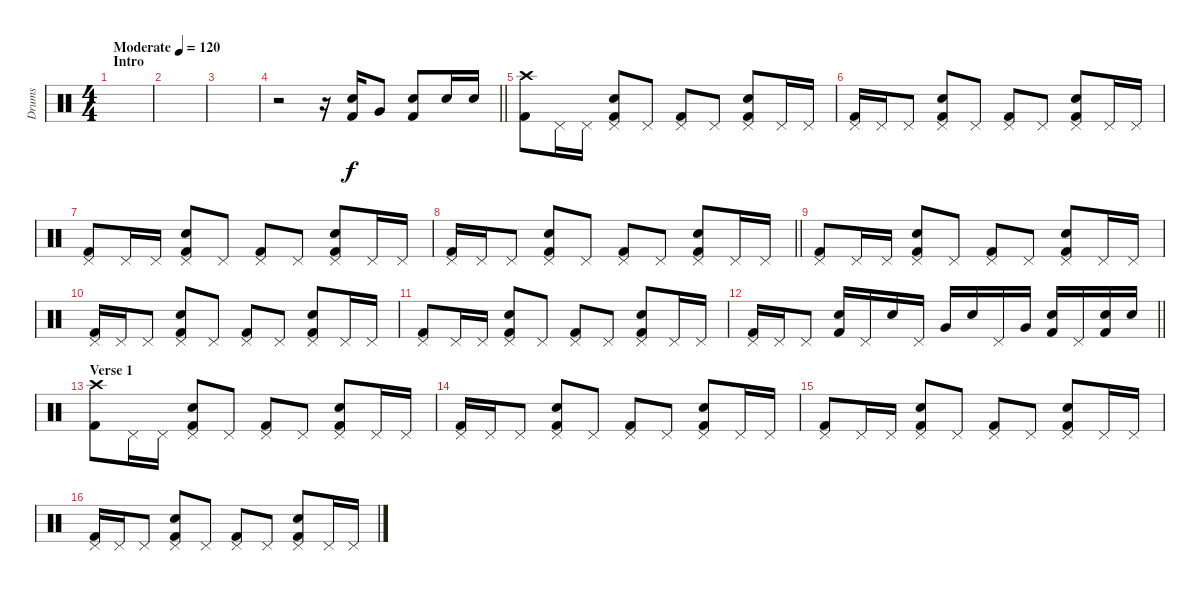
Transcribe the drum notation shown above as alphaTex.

\track ("Drums" "Drums") {instrument percussion}
\staff {score}
\articulation defaults
\ts (4 4)
\section ("" "Intro")
\tempo (120 "Moderate")
\clef neutral
\ks c
|
|
|
\barLineRight lightlight
r.2 r.16 ("Kick (hit) 2" "Snare (hit) 2").16 "Very Low Tom (hit)".8 ("Kick (hit) 2" "Snare (hit) 2").8 "Snare (hit) 2".16 "Snare (hit) 2".16 |
("Kick (hit) 2" "Crash high (hit)").8 "Pedal Hi-Hat (hit)".16 "Pedal Hi-Hat (hit)".16 ("Kick (hit) 2" "Snare (hit) 2" "Pedal Hi-Hat (hit)").8 "Pedal Hi-Hat (hit)".8 ("Kick (hit) 2" "Pedal Hi-Hat (hit)").8 "Pedal Hi-Hat (hit)".8 ("Kick (hit) 2" "Snare (hit) 2" "Pedal Hi-Hat (hit)").8 "Pedal Hi-Hat (hit)".16 "Pedal Hi-Hat (hit)".16 |
("Kick (hit) 2" "Pedal Hi-Hat (hit)").16 "Pedal Hi-Hat (hit)".16 "Pedal Hi-Hat (hit)".8 ("Kick (hit) 2" "Snare (hit) 2" "Pedal Hi-Hat (hit)").8 "Pedal Hi-Hat (hit)".8 ("Kick (hit) 2" "Pedal Hi-Hat (hit)").8 "Pedal Hi-Hat (hit)".8 ("Kick (hit) 2" "Snare (hit) 2" "Pedal Hi-Hat (hit)").8 "Pedal Hi-Hat (hit)".16 "Pedal Hi-Hat (hit)".16 |
("Kick (hit) 2" "Pedal Hi-Hat (hit)").8 "Pedal Hi-Hat (hit)".16 "Pedal Hi-Hat (hit)".16 ("Kick (hit) 2" "Snare (hit) 2" "Pedal Hi-Hat (hit)").8 "Pedal Hi-Hat (hit)".8 ("Kick (hit) 2" "Pedal Hi-Hat (hit)").8 "Pedal Hi-Hat (hit)".8 ("Kick (hit) 2" "Snare (hit) 2" "Pedal Hi-Hat (hit)").8 "Pedal Hi-Hat (hit)".16 "Pedal Hi-Hat (hit)".16 |
\barLineRight lightlight
("Kick (hit) 2" "Pedal Hi-Hat (hit)").16 "Pedal Hi-Hat (hit)".16 "Pedal Hi-Hat (hit)".8 ("Kick (hit) 2" "Snare (hit) 2" "Pedal Hi-Hat (hit)").8 "Pedal Hi-Hat (hit)".8 ("Kick (hit) 2" "Pedal Hi-Hat (hit)").8 "Pedal Hi-Hat (hit)".8 ("Kick (hit) 2" "Snare (hit) 2" "Pedal Hi-Hat (hit)").8 "Pedal Hi-Hat (hit)".16 "Pedal Hi-Hat (hit)".16 |
("Kick (hit) 2" "Pedal Hi-Hat (hit)").8 "Pedal Hi-Hat (hit)".16 "Pedal Hi-Hat (hit)".16 ("Kick (hit) 2" "Snare (hit) 2" "Pedal Hi-Hat (hit)").8 "Pedal Hi-Hat (hit)".8 ("Kick (hit) 2" "Pedal Hi-Hat (hit)").8 "Pedal Hi-Hat (hit)".8 ("Kick (hit) 2" "Snare (hit) 2" "Pedal Hi-Hat (hit)").8 "Pedal Hi-Hat (hit)".16 "Pedal Hi-Hat (hit)".16 |
("Kick (hit) 2" "Pedal Hi-Hat (hit)").16 "Pedal Hi-Hat (hit)".16 "Pedal Hi-Hat (hit)".8 ("Kick (hit) 2" "Snare (hit) 2" "Pedal Hi-Hat (hit)").8 "Pedal Hi-Hat (hit)".8 ("Kick (hit) 2" "Pedal Hi-Hat (hit)").8 "Pedal Hi-Hat (hit)".8 ("Kick (hit) 2" "Snare (hit) 2" "Pedal Hi-Hat (hit)").8 "Pedal Hi-Hat (hit)".16 "Pedal Hi-Hat (hit)".16 |
("Kick (hit) 2" "Pedal Hi-Hat (hit)").8 "Pedal Hi-Hat (hit)".16 "Pedal Hi-Hat (hit)".16 ("Kick (hit) 2" "Snare (hit) 2" "Pedal Hi-Hat (hit)").8 "Pedal Hi-Hat (hit)".8 ("Kick (hit) 2" "Pedal Hi-Hat (hit)").8 "Pedal Hi-Hat (hit)".8 ("Kick (hit) 2" "Snare (hit) 2" "Pedal Hi-Hat (hit)").8 "Pedal Hi-Hat (hit)".16 "Pedal Hi-Hat (hit)".16 |
\barLineRight lightlight
("Kick (hit) 2" "Pedal Hi-Hat (hit)").16 "Pedal Hi-Hat (hit)".16 "Pedal Hi-Hat (hit)".8 ("Kick (hit) 2" "Snare (hit) 2").16 "Pedal Hi-Hat (hit)".16 "Snare (hit) 2".16 "Pedal Hi-Hat (hit)".16 "Very Low Tom (hit)".16 "Snare (hit) 2".16 "Pedal Hi-Hat (hit)".16 "Very Low Tom (hit)".16 ("Kick (hit) 2" "Snare (hit) 2").16 "Pedal Hi-Hat (hit)".16 ("Kick (hit) 2" "Snare (hit) 2").16 "Snare (hit) 2".16 |
\section ("" "Verse 1")
("Kick (hit) 2" "Crash high (hit)").8 "Pedal Hi-Hat (hit)".16 "Pedal Hi-Hat (hit)".16 ("Kick (hit) 2" "Snare (hit) 2" "Pedal Hi-Hat (hit)").8 "Pedal Hi-Hat (hit)".8 ("Kick (hit) 2" "Pedal Hi-Hat (hit)").8 "Pedal Hi-Hat (hit)".8 ("Kick (hit) 2" "Snare (hit) 2" "Pedal Hi-Hat (hit)").8 "Pedal Hi-Hat (hit)".16 "Pedal Hi-Hat (hit)".16 |
("Kick (hit) 2" "Pedal Hi-Hat (hit)").16 "Pedal Hi-Hat (hit)".16 "Pedal Hi-Hat (hit)".8 ("Kick (hit) 2" "Snare (hit) 2" "Pedal Hi-Hat (hit)").8 "Pedal Hi-Hat (hit)".8 ("Kick (hit) 2" "Pedal Hi-Hat (hit)").8 "Pedal Hi-Hat (hit)".8 ("Kick (hit) 2" "Snare (hit) 2" "Pedal Hi-Hat (hit)").8 "Pedal Hi-Hat (hit)".16 "Pedal Hi-Hat (hit)".16 |
("Kick (hit) 2" "Pedal Hi-Hat (hit)").8 "Pedal Hi-Hat (hit)".16 "Pedal Hi-Hat (hit)".16 ("Kick (hit) 2" "Snare (hit) 2" "Pedal Hi-Hat (hit)").8 "Pedal Hi-Hat (hit)".8 ("Kick (hit) 2" "Pedal Hi-Hat (hit)").8 "Pedal Hi-Hat (hit)".8 ("Kick (hit) 2" "Snare (hit) 2" "Pedal Hi-Hat (hit)").8 "Pedal Hi-Hat (hit)".16 "Pedal Hi-Hat (hit)".16 |
("Kick (hit) 2" "Pedal Hi-Hat (hit)").16 "Pedal Hi-Hat (hit)".16 "Pedal Hi-Hat (hit)".8 ("Kick (hit) 2" "Snare (hit) 2" "Pedal Hi-Hat (hit)").8 "Pedal Hi-Hat (hit)".8 ("Kick (hit) 2" "Pedal Hi-Hat (hit)").8 "Pedal Hi-Hat (hit)".8 ("Kick (hit) 2" "Snare (hit) 2" "Pedal Hi-Hat (hit)").8 "Pedal Hi-Hat (hit)".16 "Pedal Hi-Hat (hit)".16
